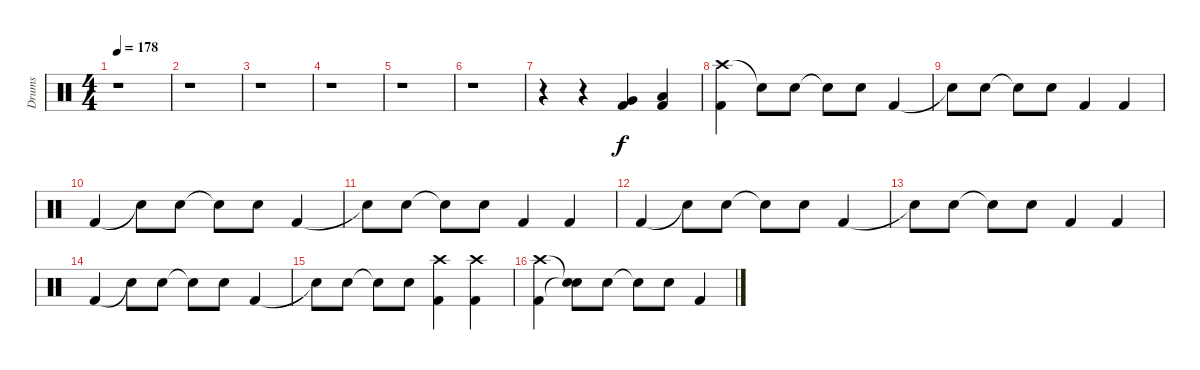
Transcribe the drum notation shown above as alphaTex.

\track ("Drums" "Drums") {mute instrument percussion}
\staff {score}
\articulation defaults
\ts (4 4)
\tempo 178
\clef neutral
\ks c
r.1{dy f} |
r.1 |
r.1 |
r.1 |
r.1 |
r.1 |
r.4 r.4 ("Very Low Tom (hit)" "Kick (hit) 2").4 ("Low Floor Tom (hit)" "Kick (hit) 2").4 |
("Crash high (hit)" "Kick (hit) 2").4 "Snare (hit)"{t}.8 "Electric Snare (hit)".8 "Snare (hit)"{t}.8 "Electric Snare (hit)".8 "Kick (hit) 2".4 |
"Snare (hit)"{t}.8 "Electric Snare (hit)".8 "Snare (hit)"{t}.8 "Electric Snare (hit)".8 "Kick (hit) 2".4 "Kick (hit) 2".4 |
"Kick (hit) 2".4 "Snare (hit)"{t}.8 "Electric Snare (hit)".8 "Snare (hit)"{t}.8 "Electric Snare (hit)".8 "Kick (hit) 2".4 |
"Snare (hit)"{t}.8 "Electric Snare (hit)".8 "Snare (hit)"{t}.8 "Electric Snare (hit)".8 "Kick (hit) 2".4 "Kick (hit) 2".4 |
"Kick (hit) 2".4 "Snare (hit)"{t}.8 "Electric Snare (hit)".8 "Snare (hit)"{t}.8 "Electric Snare (hit)".8 "Kick (hit) 2".4 |
"Snare (hit)"{t}.8 "Electric Snare (hit)".8 "Snare (hit)"{t}.8 "Electric Snare (hit)".8 "Kick (hit) 2".4 "Kick (hit) 2".4 |
"Kick (hit) 2".4 "Snare (hit)"{t}.8 "Electric Snare (hit)".8 "Snare (hit)"{t}.8 "Electric Snare (hit)".8 "Kick (hit) 2".4 |
"Snare (hit)"{t}.8 "Electric Snare (hit)".8 "Snare (hit)"{t}.8 "Electric Snare (hit)".8 ("Crash high (hit)" "Kick (hit) 2").4 ("Crash high (hit)" "Kick (hit) 2").4 |
("Crash high (hit)" "Kick (hit) 2").4 ("Snare (hit)"{t} "Snare (hit)"{t}).8 "Electric Snare (hit)".8 "Snare (hit)"{t}.8 "Electric Snare (hit)".8 "Kick (hit) 2".4
